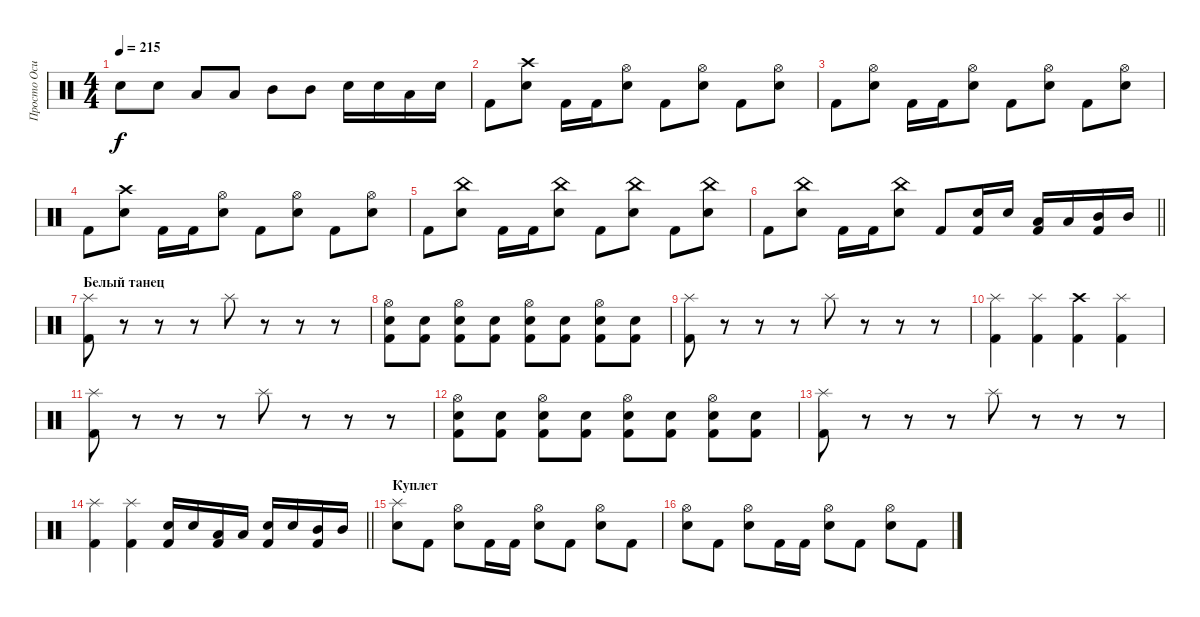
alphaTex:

\track ("Просто Осип" "Просто Оси") {instrument percussion}
\staff {score}
\articulation defaults
\ts (4 4)
\tempo 215
\clef neutral
\ks c "Electric Snare (hit)".8{dy f} "Electric Snare (hit)".8 "Low Tom (hit)".8 "Low Tom (hit)".8 "Mid Tom (hit)".8 "Mid Tom (hit)".8 "Electric Snare (hit)".16 "Electric Snare (hit)".16 "Low Tom (hit)".16 "Electric Snare (hit)".16
|
"Kick (hit) 2".8 ("Electric Snare (hit)" "Crash high (hit)").8 "Kick (hit) 2".16 "Kick (hit) 2".16 ("Electric Snare (hit)" "Hi-Hat (open)").8 "Kick (hit) 2".8 ("Electric Snare (hit)" "Hi-Hat (open)").8 "Kick (hit) 2".8 ("Electric Snare (hit)" "Hi-Hat (open)").8 |
"Kick (hit) 2".8 ("Electric Snare (hit)" "Hi-Hat (open)").8 "Kick (hit) 2".16 "Kick (hit) 2".16 ("Electric Snare (hit)" "Hi-Hat (open)").8 "Kick (hit) 2".8 ("Electric Snare (hit)" "Hi-Hat (open)").8 "Kick (hit) 2".8 ("Electric Snare (hit)" "Hi-Hat (open)").8 |
"Kick (hit) 2".8 ("Electric Snare (hit)" "Crash high (hit)").8 "Kick (hit) 2".16 "Kick (hit) 2".16 ("Electric Snare (hit)" "Hi-Hat (open)").8 "Kick (hit) 2".8 ("Electric Snare (hit)" "Hi-Hat (open)").8 "Kick (hit) 2".8 ("Electric Snare (hit)" "Hi-Hat (open)").8 |
"Kick (hit) 2".8 ("Electric Snare (hit)" "China (hit)").8 "Kick (hit) 2".16 "Kick (hit) 2".16 ("Electric Snare (hit)" "China (hit)").8 "Kick (hit) 2".8 ("Electric Snare (hit)" "China (hit)").8 "Kick (hit) 2".8 ("Electric Snare (hit)" "China (hit)").8 |
\barLineRight lightlight "Kick (hit) 2".8
("Electric Snare (hit)" "China (hit)").8 "Kick (hit) 2".16 "Kick (hit) 2".16 ("Electric Snare (hit)" "China (hit)").8 "Kick (hit) 2".8 ("Kick (hit) 2" "Electric Snare (hit)").16 "Electric Snare (hit)".16 ("Kick (hit) 2" "Low Tom (hit)").16 "Low Tom (hit)".16 ("Kick (hit) 2" "Mid Tom (hit)").16 "Mid Tom (hit)".16 |
\section ("" "Белый танец")
("Kick (hit) 2" "Splash (hit)").8 r.8 r.8 r.8 "Splash (hit)".8 r.8 r.8 r.8 |
("Kick (hit) 2" "Electric Snare (hit)" "Hi-Hat (open)").8 ("Kick (hit) 2" "Electric Snare (hit)").8 ("Kick (hit) 2" "Electric Snare (hit)" "Hi-Hat (open)").8 ("Kick (hit) 2" "Electric Snare (hit)").8 ("Kick (hit) 2" "Electric Snare (hit)" "Hi-Hat (open)").8 ("Kick (hit) 2" "Electric Snare (hit)").8 ("Kick (hit) 2" "Electric Snare (hit)" "Hi-Hat (open)").8 ("Kick (hit) 2" "Electric Snare (hit)").8 |
("Kick (hit) 2" "Splash (hit)").8 r.8 r.8 r.8 "Splash (hit)".8 r.8 r.8 r.8 |
("Kick (hit) 2" "Splash (hit)").4 ("Kick (hit) 2" "Splash (hit)").4 ("Kick (hit) 2" "Crash high (hit)").4 ("Kick (hit) 2" "Splash (hit)").4 |
("Kick (hit) 2" "Splash (hit)").8 r.8 r.8 r.8 "Splash (hit)".8 r.8 r.8 r.8 |
("Kick (hit) 2" "Electric Snare (hit)" "Hi-Hat (open)").8 ("Kick (hit) 2" "Electric Snare (hit)").8 ("Kick (hit) 2" "Electric Snare (hit)" "Hi-Hat (open)").8 ("Kick (hit) 2" "Electric Snare (hit)").8 ("Kick (hit) 2" "Electric Snare (hit)" "Hi-Hat (open)").8 ("Kick (hit) 2" "Electric Snare (hit)").8 ("Kick (hit) 2" "Electric Snare (hit)" "Hi-Hat (open)").8 ("Kick (hit) 2" "Electric Snare (hit)").8 |
("Kick (hit) 2" "Splash (hit)").8 r.8 r.8 r.8 "Splash (hit)".8 r.8 r.8 r.8 |
\barLineRight lightlight
("Kick (hit) 2" "Splash (hit)").4 ("Kick (hit) 2" "Splash (hit)").4 ("Kick (hit) 2" "Electric Snare (hit)").16 "Electric Snare (hit)".16 ("Kick (hit) 2" "Low Tom (hit)").16 "Low Tom (hit)".16 ("Kick (hit) 2" "Electric Snare (hit)").16 "Electric Snare (hit)".16 ("Kick (hit) 2" "Mid Tom (hit)").16 "Mid Tom (hit)".16 |
\section ("" "Куплет")
("Electric Snare (hit)" "Splash (hit)").8 "Kick (hit) 2".8 ("Electric Snare (hit)" "Hi-Hat (open)").8 "Kick (hit) 2".16 "Kick (hit) 2".16 ("Electric Snare (hit)" "Hi-Hat (open)").8 "Kick (hit) 2".8 ("Electric Snare (hit)" "Hi-Hat (open)").8 "Kick (hit) 2".8 |
("Electric Snare (hit)" "Hi-Hat (open)").8 "Kick (hit) 2".8 ("Electric Snare (hit)" "Hi-Hat (open)").8 "Kick (hit) 2".16 "Kick (hit) 2".16 ("Electric Snare (hit)" "Hi-Hat (open)").8 "Kick (hit) 2".8 ("Electric Snare (hit)" "Hi-Hat (open)").8 "Kick (hit) 2".8
